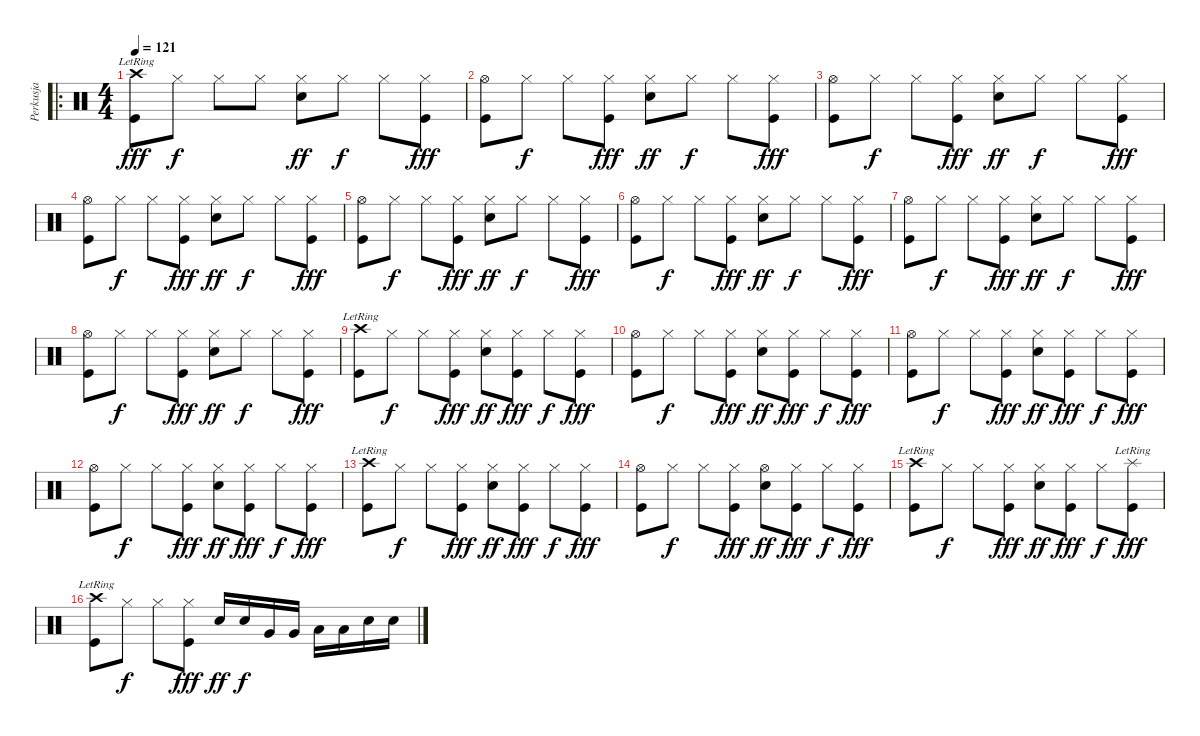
\track ("Perkusja" "Perkusja") {instrument percussion}
\staff {score}
\articulation defaults
\ro
\ts (4 4)
\tempo 121
\clef neutral
\ks c
("Crash high (hit)"{lr} "Kick (hit)").8{dy fff} "Hi-Hat (closed)".8{dy f} "Hi-Hat (closed)".8 "Hi-Hat (closed)".8 ("Hi-Hat (closed)" "Electric Snare (hit)").8{dy ff} "Hi-Hat (closed)".8{dy f} "Hi-Hat (closed)".8 ("Hi-Hat (closed)" "Kick (hit)").8{dy fff} |
("Hi-Hat (open)" "Kick (hit)").8 "Hi-Hat (closed)".8{dy f} "Hi-Hat (closed)".8 ("Hi-Hat (closed)" "Kick (hit)").8{dy fff} ("Hi-Hat (closed)" "Electric Snare (hit)").8{dy ff} "Hi-Hat (closed)".8{dy f} "Hi-Hat (closed)".8 ("Hi-Hat (closed)" "Kick (hit)").8{dy fff} |
("Hi-Hat (open)" "Kick (hit)").8 "Hi-Hat (closed)".8{dy f} "Hi-Hat (closed)".8 ("Hi-Hat (closed)" "Kick (hit)").8{dy fff} ("Hi-Hat (closed)" "Electric Snare (hit)").8{dy ff} "Hi-Hat (closed)".8{dy f} "Hi-Hat (closed)".8 ("Hi-Hat (closed)" "Kick (hit)").8{dy fff} |
("Hi-Hat (open)" "Kick (hit)").8 "Hi-Hat (closed)".8{dy f} "Hi-Hat (closed)".8 ("Hi-Hat (closed)" "Kick (hit)").8{dy fff} ("Hi-Hat (closed)" "Electric Snare (hit)").8{dy ff} "Hi-Hat (closed)".8{dy f} "Hi-Hat (closed)".8 ("Hi-Hat (closed)" "Kick (hit)").8{dy fff} |
("Hi-Hat (open)" "Kick (hit)").8 "Hi-Hat (closed)".8{dy f} "Hi-Hat (closed)".8 ("Hi-Hat (closed)" "Kick (hit)").8{dy fff} ("Hi-Hat (closed)" "Electric Snare (hit)").8{dy ff} "Hi-Hat (closed)".8{dy f} "Hi-Hat (closed)".8 ("Hi-Hat (closed)" "Kick (hit)").8{dy fff} |
("Hi-Hat (open)" "Kick (hit)").8 "Hi-Hat (closed)".8{dy f} "Hi-Hat (closed)".8 ("Hi-Hat (closed)" "Kick (hit)").8{dy fff} ("Hi-Hat (closed)" "Electric Snare (hit)").8{dy ff} "Hi-Hat (closed)".8{dy f} "Hi-Hat (closed)".8 ("Hi-Hat (closed)" "Kick (hit)").8{dy fff} |
("Hi-Hat (open)" "Kick (hit)").8 "Hi-Hat (closed)".8{dy f} "Hi-Hat (closed)".8 ("Hi-Hat (closed)" "Kick (hit)").8{dy fff} ("Hi-Hat (closed)" "Electric Snare (hit)").8{dy ff} "Hi-Hat (closed)".8{dy f} "Hi-Hat (closed)".8 ("Hi-Hat (closed)" "Kick (hit)").8{dy fff} |
("Hi-Hat (open)" "Kick (hit)").8 "Hi-Hat (closed)".8{dy f} "Hi-Hat (closed)".8 ("Hi-Hat (closed)" "Kick (hit)").8{dy fff} ("Hi-Hat (closed)" "Electric Snare (hit)").8{dy ff} "Hi-Hat (closed)".8{dy f} "Hi-Hat (closed)".8 ("Hi-Hat (closed)" "Kick (hit)").8{dy fff} |
("Crash high (hit)"{lr} "Kick (hit)").8 "Hi-Hat (closed)".8{dy f} "Hi-Hat (closed)".8 ("Hi-Hat (closed)" "Kick (hit)").8{dy fff} ("Hi-Hat (closed)" "Electric Snare (hit)").8{dy ff} ("Hi-Hat (closed)" "Kick (hit)").8{dy fff} "Hi-Hat (closed)".8{dy f} ("Hi-Hat (closed)" "Kick (hit)").8{dy fff} |
("Hi-Hat (open)" "Kick (hit)").8 "Hi-Hat (closed)".8{dy f} "Hi-Hat (closed)".8 ("Hi-Hat (closed)" "Kick (hit)").8{dy fff} ("Hi-Hat (closed)" "Electric Snare (hit)").8{dy ff} ("Hi-Hat (closed)" "Kick (hit)").8{dy fff} "Hi-Hat (closed)".8{dy f} ("Hi-Hat (closed)" "Kick (hit)").8{dy fff} |
("Hi-Hat (open)" "Kick (hit)").8 "Hi-Hat (closed)".8{dy f} "Hi-Hat (closed)".8 ("Hi-Hat (closed)" "Kick (hit)").8{dy fff} ("Hi-Hat (closed)" "Electric Snare (hit)").8{dy ff} ("Hi-Hat (closed)" "Kick (hit)").8{dy fff} "Hi-Hat (closed)".8{dy f} ("Hi-Hat (closed)" "Kick (hit)").8{dy fff} |
("Hi-Hat (open)" "Kick (hit)").8 "Hi-Hat (closed)".8{dy f} "Hi-Hat (closed)".8 ("Hi-Hat (closed)" "Kick (hit)").8{dy fff} ("Hi-Hat (closed)" "Electric Snare (hit)").8{dy ff} ("Hi-Hat (closed)" "Kick (hit)").8{dy fff} "Hi-Hat (closed)".8{dy f} ("Hi-Hat (closed)" "Kick (hit)").8{dy fff} |
("Crash high (hit)"{lr} "Kick (hit)").8 "Hi-Hat (closed)".8{dy f} "Hi-Hat (closed)".8 ("Hi-Hat (closed)" "Kick (hit)").8{dy fff} ("Hi-Hat (closed)" "Electric Snare (hit)").8{dy ff} ("Hi-Hat (closed)" "Kick (hit)").8{dy fff} "Hi-Hat (closed)".8{dy f} ("Hi-Hat (closed)" "Kick (hit)").8{dy fff} |
("Hi-Hat (open)" "Kick (hit)").8 "Hi-Hat (closed)".8{dy f} "Hi-Hat (closed)".8 ("Hi-Hat (closed)" "Kick (hit)").8{dy fff} ("Hi-Hat (open)" "Electric Snare (hit)").8{dy ff} ("Hi-Hat (closed)" "Kick (hit)").8{dy fff} "Hi-Hat (closed)".8{dy f} ("Hi-Hat (closed)" "Kick (hit)").8{dy fff} |
("Crash high (hit)"{lr} "Kick (hit)").8 "Hi-Hat (closed)".8{dy f} "Hi-Hat (closed)".8 ("Hi-Hat (closed)" "Kick (hit)").8{dy fff} ("Hi-Hat (closed)" "Electric Snare (hit)").8{dy ff} ("Hi-Hat (closed)" "Kick (hit)").8{dy fff} "Hi-Hat (closed)".8{dy f} ("Splash (hit)"{lr} "Kick (hit)").8{dy fff} |
("Crash high (hit)"{lr} "Kick (hit)").8 "Hi-Hat (closed)".8{dy f} "Hi-Hat (closed)".8 ("Hi-Hat (closed)" "Kick (hit)").8{dy fff} "Electric Snare (hit)".16{dy ff} "Electric Snare (hit)".16{dy f} "Very Low Tom (hit)".16 "Very Low Tom (hit)".16 "Low Floor Tom (hit)".16 "Low Floor Tom (hit)".16 "Electric Snare (hit)".16 "Electric Snare (hit)".16
